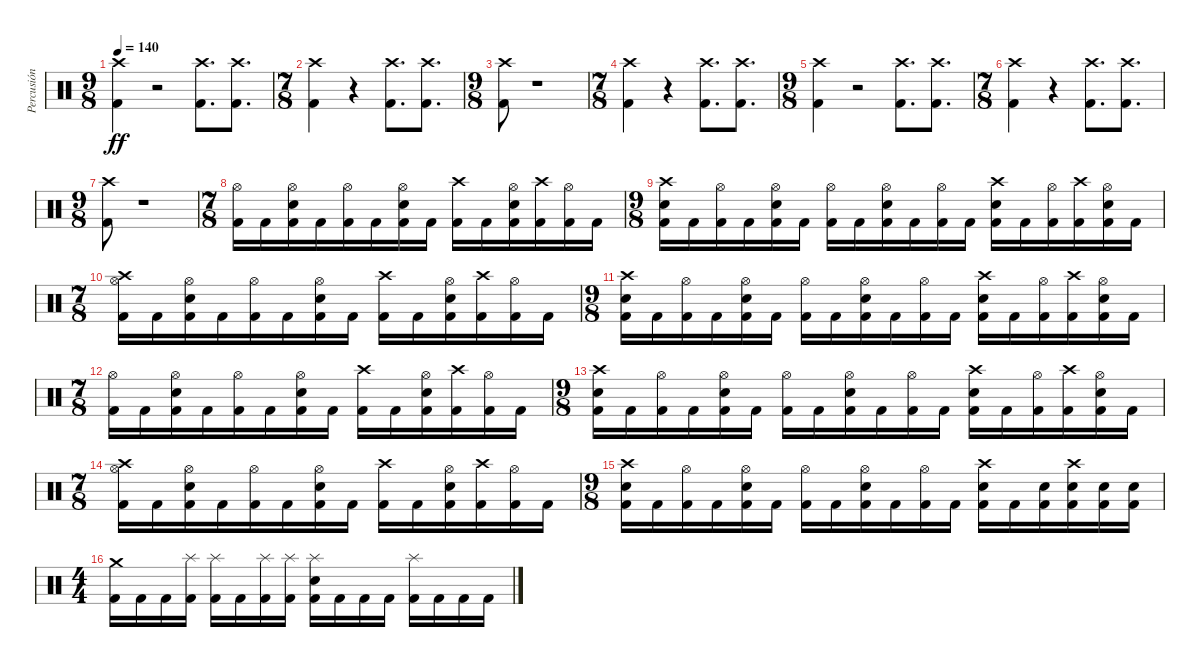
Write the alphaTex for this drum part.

\track ("Percusión" "Percusión") {instrument percussion}
\staff {score}
\articulation defaults
\ts (9 8)
\tempo 140
\clef neutral
\ks c
("Crash high (hit)" "Kick (hit) 2").4{dy ff} r.2 ("Crash high (hit)" "Kick (hit) 2").8{d} ("Crash high (hit)" "Kick (hit) 2").8{d} |
\ts (7 8)
("Crash high (hit)" "Kick (hit) 2").4 r.4 ("Crash high (hit)" "Kick (hit) 2").8{d} ("Crash high (hit)" "Kick (hit) 2").8{d} |
\ts (9 8)
("Crash high (hit)" "Kick (hit) 2").8 r.1 |
\ts (7 8)
("Crash high (hit)" "Kick (hit) 2").4 r.4 ("Crash high (hit)" "Kick (hit) 2").8{d} ("Crash high (hit)" "Kick (hit) 2").8{d} |
\ts (9 8)
("Crash high (hit)" "Kick (hit) 2").4 r.2 ("Crash high (hit)" "Kick (hit) 2").8{d} ("Crash high (hit)" "Kick (hit) 2").8{d} |
\ts (7 8)
("Crash high (hit)" "Kick (hit) 2").4 r.4 ("Crash high (hit)" "Kick (hit) 2").8{d} ("Crash high (hit)" "Kick (hit) 2").8{d} |
\ts (9 8)
("Crash high (hit)" "Kick (hit) 2").8 r.1 |
\ts (7 8)
("Hi-Hat (open)" "Kick (hit) 2").16 "Kick (hit) 2".16 ("Hi-Hat (open)" "Electric Snare (hit)" "Kick (hit) 2").16 "Kick (hit) 2".16 ("Hi-Hat (open)" "Kick (hit) 2").16 "Kick (hit) 2".16 ("Hi-Hat (open)" "Electric Snare (hit)" "Kick (hit) 2").16 "Kick (hit) 2".16 ("Crash high (hit)" "Kick (hit) 2").16 "Kick (hit) 2".16 ("Hi-Hat (open)" "Electric Snare (hit)" "Kick (hit) 2").16 ("Crash high (hit)" "Kick (hit) 2").16 ("Hi-Hat (open)" "Kick (hit) 2").16 "Kick (hit) 2".16 |
\ts (9 8)
("Crash high (hit)" "Electric Snare (hit)" "Kick (hit) 2").16 "Kick (hit) 2".16 ("Hi-Hat (open)" "Kick (hit) 2").16 "Kick (hit) 2".16 ("Hi-Hat (open)" "Electric Snare (hit)" "Kick (hit) 2").16 "Kick (hit) 2".16 ("Hi-Hat (open)" "Kick (hit) 2").16 "Kick (hit) 2".16 ("Hi-Hat (open)" "Electric Snare (hit)" "Kick (hit) 2").16 "Kick (hit) 2".16 ("Hi-Hat (open)" "Kick (hit) 2").16 "Kick (hit) 2".16 ("Crash high (hit)" "Electric Snare (hit)" "Kick (hit) 2").16 "Kick (hit) 2".16 ("Hi-Hat (open)" "Kick (hit) 2").16 ("Crash high (hit)" "Kick (hit) 2").16 ("Hi-Hat (open)" "Electric Snare (hit)" "Kick (hit) 2").16 "Kick (hit) 2".16 |
\ts (7 8)
("Crash high (hit)" "Hi-Hat (open)" "Kick (hit) 2").16 "Kick (hit) 2".16 ("Hi-Hat (open)" "Electric Snare (hit)" "Kick (hit) 2").16 "Kick (hit) 2".16 ("Hi-Hat (open)" "Kick (hit) 2").16 "Kick (hit) 2".16 ("Hi-Hat (open)" "Electric Snare (hit)" "Kick (hit) 2").16 "Kick (hit) 2".16 ("Crash high (hit)" "Kick (hit) 2").16 "Kick (hit) 2".16 ("Hi-Hat (open)" "Electric Snare (hit)" "Kick (hit) 2").16 ("Crash high (hit)" "Kick (hit) 2").16 ("Hi-Hat (open)" "Kick (hit) 2").16 "Kick (hit) 2".16 |
\ts (9 8)
("Crash high (hit)" "Electric Snare (hit)" "Kick (hit) 2").16 "Kick (hit) 2".16 ("Hi-Hat (open)" "Kick (hit) 2").16 "Kick (hit) 2".16 ("Hi-Hat (open)" "Electric Snare (hit)" "Kick (hit) 2").16 "Kick (hit) 2".16 ("Hi-Hat (open)" "Kick (hit) 2").16 "Kick (hit) 2".16 ("Hi-Hat (open)" "Electric Snare (hit)" "Kick (hit) 2").16 "Kick (hit) 2".16 ("Hi-Hat (open)" "Kick (hit) 2").16 "Kick (hit) 2".16 ("Crash high (hit)" "Electric Snare (hit)" "Kick (hit) 2").16 "Kick (hit) 2".16 ("Hi-Hat (open)" "Kick (hit) 2").16 ("Crash high (hit)" "Kick (hit) 2").16 ("Hi-Hat (open)" "Electric Snare (hit)" "Kick (hit) 2").16 "Kick (hit) 2".16 |
\ts (7 8)
("Hi-Hat (open)" "Kick (hit) 2").16 "Kick (hit) 2".16 ("Hi-Hat (open)" "Electric Snare (hit)" "Kick (hit) 2").16 "Kick (hit) 2".16 ("Hi-Hat (open)" "Kick (hit) 2").16 "Kick (hit) 2".16 ("Hi-Hat (open)" "Electric Snare (hit)" "Kick (hit) 2").16 "Kick (hit) 2".16 ("Crash high (hit)" "Kick (hit) 2").16 "Kick (hit) 2".16 ("Hi-Hat (open)" "Electric Snare (hit)" "Kick (hit) 2").16 ("Crash high (hit)" "Kick (hit) 2").16 ("Hi-Hat (open)" "Kick (hit) 2").16 "Kick (hit) 2".16 |
\ts (9 8)
("Crash high (hit)" "Electric Snare (hit)" "Kick (hit) 2").16 "Kick (hit) 2".16 ("Hi-Hat (open)" "Kick (hit) 2").16 "Kick (hit) 2".16 ("Hi-Hat (open)" "Electric Snare (hit)" "Kick (hit) 2").16 "Kick (hit) 2".16 ("Hi-Hat (open)" "Kick (hit) 2").16 "Kick (hit) 2".16 ("Hi-Hat (open)" "Electric Snare (hit)" "Kick (hit) 2").16 "Kick (hit) 2".16 ("Hi-Hat (open)" "Kick (hit) 2").16 "Kick (hit) 2".16 ("Crash high (hit)" "Electric Snare (hit)" "Kick (hit) 2").16 "Kick (hit) 2".16 ("Hi-Hat (open)" "Kick (hit) 2").16 ("Crash high (hit)" "Kick (hit) 2").16 ("Hi-Hat (open)" "Electric Snare (hit)" "Kick (hit) 2").16 "Kick (hit) 2".16 |
\ts (7 8)
("Crash high (hit)" "Hi-Hat (open)" "Kick (hit) 2").16 "Kick (hit) 2".16 ("Hi-Hat (open)" "Electric Snare (hit)" "Kick (hit) 2").16 "Kick (hit) 2".16 ("Hi-Hat (open)" "Kick (hit) 2").16 "Kick (hit) 2".16 ("Hi-Hat (open)" "Electric Snare (hit)" "Kick (hit) 2").16 "Kick (hit) 2".16 ("Crash high (hit)" "Kick (hit) 2").16 "Kick (hit) 2".16 ("Hi-Hat (open)" "Electric Snare (hit)" "Kick (hit) 2").16 ("Crash high (hit)" "Kick (hit) 2").16 ("Hi-Hat (open)" "Kick (hit) 2").16 "Kick (hit) 2".16 |
\ts (9 8)
("Crash high (hit)" "Electric Snare (hit)" "Kick (hit) 2").16 "Kick (hit) 2".16 ("Hi-Hat (open)" "Kick (hit) 2").16 "Kick (hit) 2".16 ("Hi-Hat (open)" "Electric Snare (hit)" "Kick (hit) 2").16 "Kick (hit) 2".16 ("Hi-Hat (open)" "Kick (hit) 2").16 "Kick (hit) 2".16 ("Hi-Hat (open)" "Electric Snare (hit)" "Kick (hit) 2").16 "Kick (hit) 2".16 ("Hi-Hat (open)" "Kick (hit) 2").16 "Kick (hit) 2".16 ("Crash high (hit)" "Electric Snare (hit)" "Kick (hit) 2").16 "Kick (hit) 2".16 ("Electric Snare (hit)" "Kick (hit) 2").16 ("Crash high (hit)" "Electric Snare (hit)" "Kick (hit) 2").16 ("Electric Snare (hit)" "Kick (hit) 2").16 ("Electric Snare (hit)" "Kick (hit) 2").16 |
\ts (4 4)
("Crash medium (hit)" "Kick (hit) 2").16 "Kick (hit) 2".16 "Kick (hit) 2".16 ("Splash (hit)" "Kick (hit) 2").16 ("Splash (hit)" "Kick (hit) 2").16 "Kick (hit) 2".16 ("Splash (hit)" "Kick (hit) 2").16 ("Splash (hit)" "Kick (hit) 2").16 ("Splash (hit)" "Electric Snare (hit)" "Kick (hit) 2").16 "Kick (hit) 2".16 "Kick (hit) 2".16 "Kick (hit) 2".16 ("Splash (hit)" "Kick (hit) 2").16 "Kick (hit) 2".16 "Kick (hit) 2".16 "Kick (hit) 2".16
